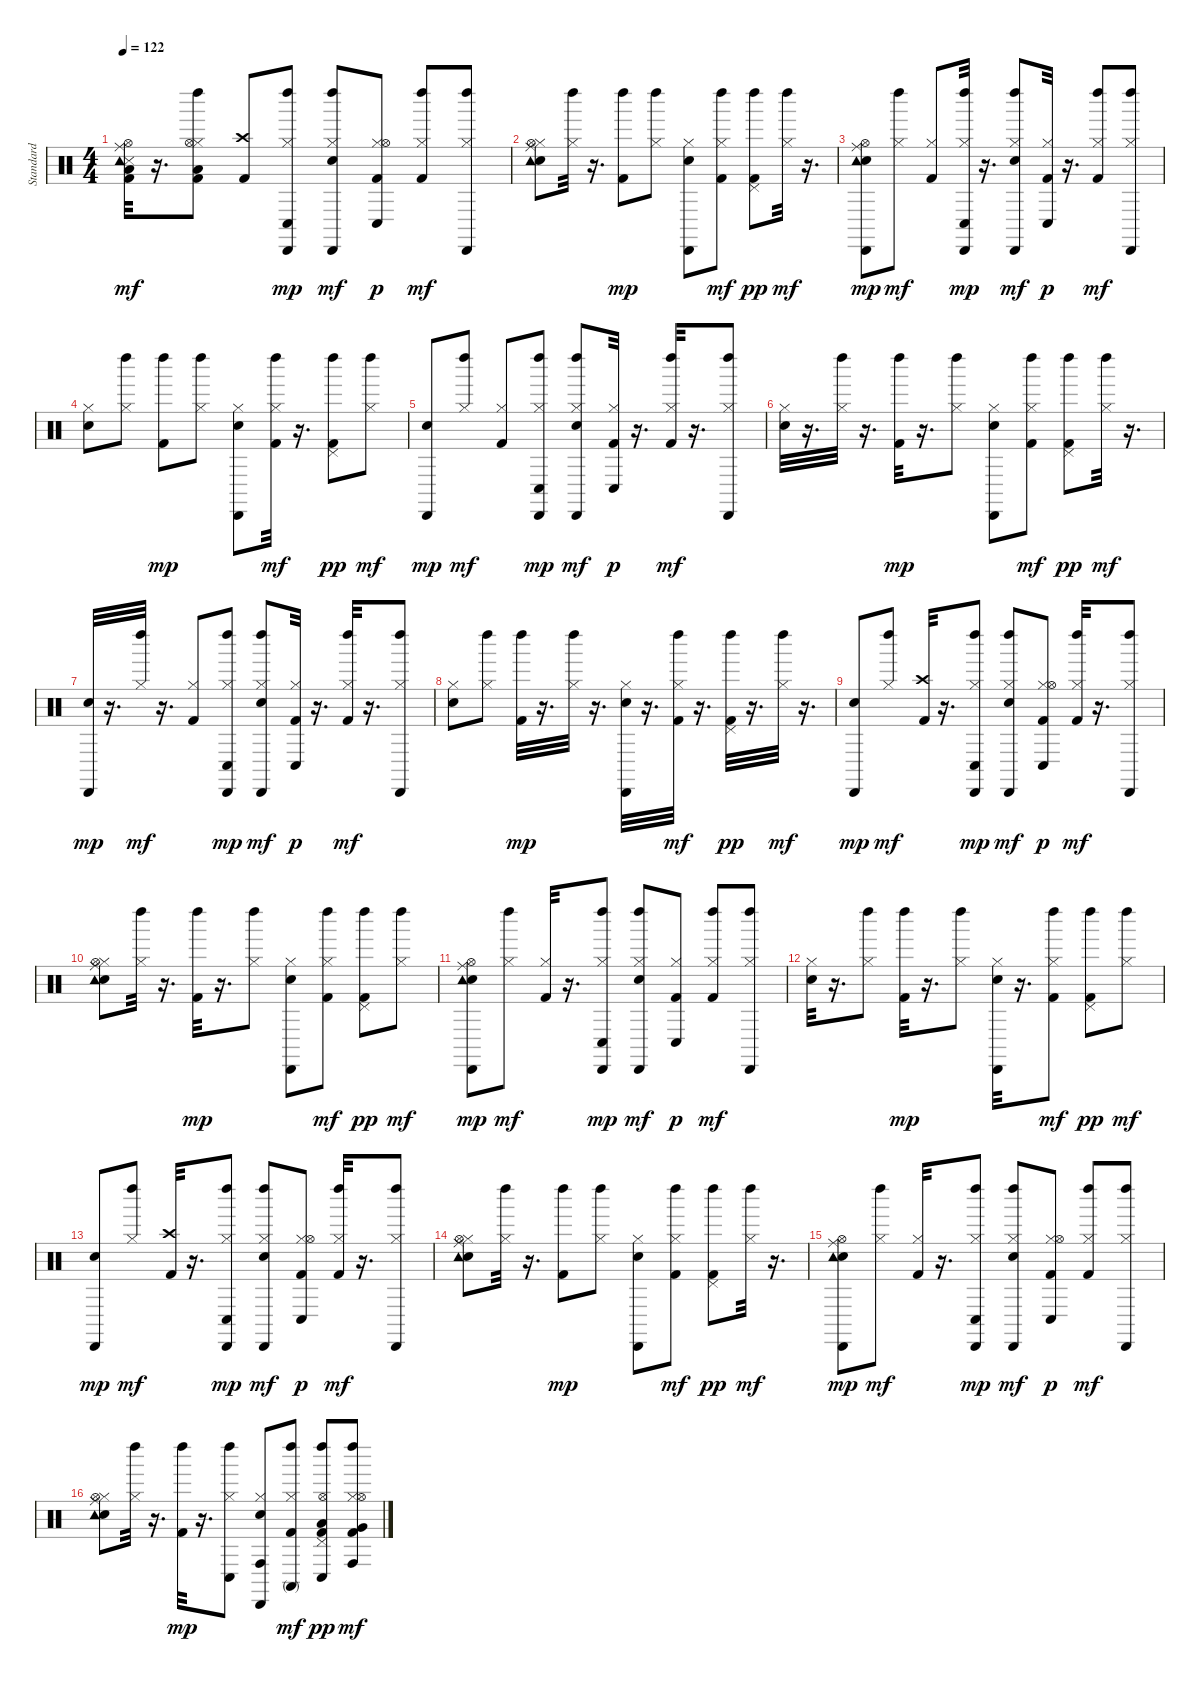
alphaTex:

\track (" Standard" " Standard") {instrument percussion}
\staff {score}
\articulation defaults
\ts (4 4)
\tempo 122
\clef neutral
\ks c
("Kick (hit) 2" "Snare (side stick) 3" "Low Floor Tom (hit)" "Hi-Hat (open)" "Ride (middle)" "Tambourine (hit)").32{dy mf} r.16{d} ("Kick (hit) 2" "Low Floor Tom (hit)" "Hi-Hat (closed)" "Hi-Hat (open)" "Left Maraca (hit)").8 ("Kick (hit) 2" "Crash high (hit)").8 ("Hi-Hat (closed)" "Conga low (hit)" "Cabasa (hit)" "Left Maraca (hit)").8{dy mp} ("Snare (hit) 2" "Hi-Hat (closed)" "Cabasa (hit)" "Left Maraca (hit)").8{dy mf} ("Kick (hit) 2" "Hi-Hat (closed)" "Hi-Hat (open)" "Conga low (hit)").8{dy p} ("Kick (hit) 2" "Hi-Hat (closed)" "Left Maraca (hit)").8{dy mf} ("Hi-Hat (closed)" "Cabasa (hit)" "Left Maraca (hit)").8 |
("Snare (hit) 2" "Hi-Hat (closed)" "Hi-Hat (open)" "Ride (middle)" "Tambourine (hit)").8 ("Hi-Hat (closed)" "Left Maraca (hit)").32 r.16{d} ("Kick (hit) 2" "Left Maraca (hit)").8{dy mp} ("Hi-Hat (closed)" "Left Maraca (hit)").8 ("Snare (hit) 2" "Hi-Hat (closed)" "Cabasa (hit)").8 ("Kick (hit) 2" "Hi-Hat (closed)" "Left Maraca (hit)").8{dy mf} ("Kick (hit) 2" "Pedal Hi-Hat (hit)" "Left Maraca (hit)").8{dy pp} ("Hi-Hat (closed)" "Left Maraca (hit)").32{dy mf} r.16{d} |
("Snare (hit) 2" "Hi-Hat (open)" "Ride (middle)" "Tambourine (hit)" "Cabasa (hit)").8{dy mp} ("Hi-Hat (closed)" "Left Maraca (hit)").8{dy mf} ("Kick (hit) 2" "Hi-Hat (closed)").8 ("Hi-Hat (closed)" "Conga low (hit)" "Cabasa (hit)" "Left Maraca (hit)").32{dy mp} r.16{d} ("Snare (hit) 2" "Hi-Hat (closed)" "Cabasa (hit)" "Left Maraca (hit)").8{dy mf} ("Kick (hit) 2" "Hi-Hat (closed)" "Conga low (hit)").32{dy p} r.16{d} ("Kick (hit) 2" "Hi-Hat (closed)" "Left Maraca (hit)").8{dy mf} ("Hi-Hat (closed)" "Cabasa (hit)" "Left Maraca (hit)").8 |
("Snare (hit) 2" "Hi-Hat (closed)").8 ("Hi-Hat (closed)" "Left Maraca (hit)").8 ("Kick (hit) 2" "Left Maraca (hit)").8{dy mp} ("Hi-Hat (closed)" "Left Maraca (hit)").8 ("Snare (hit) 2" "Hi-Hat (closed)" "Cabasa (hit)").8 ("Kick (hit) 2" "Hi-Hat (closed)" "Left Maraca (hit)").32{dy mf} r.16{d} ("Kick (hit) 2" "Pedal Hi-Hat (hit)" "Left Maraca (hit)").8{dy pp} ("Hi-Hat (closed)" "Left Maraca (hit)").8{dy mf} |
("Snare (hit) 2" "Cabasa (hit)").8{dy mp} ("Hi-Hat (closed)" "Left Maraca (hit)").8{dy mf} ("Kick (hit) 2" "Hi-Hat (closed)").8 ("Hi-Hat (closed)" "Conga low (hit)" "Cabasa (hit)" "Left Maraca (hit)").8{dy mp} ("Snare (hit) 2" "Hi-Hat (closed)" "Cabasa (hit)" "Left Maraca (hit)").8{dy mf} ("Kick (hit) 2" "Hi-Hat (closed)" "Conga low (hit)").32{dy p} r.16{d} ("Kick (hit) 2" "Hi-Hat (closed)" "Left Maraca (hit)").32{dy mf} r.16{d} ("Hi-Hat (closed)" "Cabasa (hit)" "Left Maraca (hit)").8 |
("Snare (hit) 2" "Hi-Hat (closed)").32 r.16{d} ("Hi-Hat (closed)" "Left Maraca (hit)").32 r.16{d} ("Kick (hit) 2" "Left Maraca (hit)").32{dy mp} r.16{d} ("Hi-Hat (closed)" "Left Maraca (hit)").8 ("Snare (hit) 2" "Hi-Hat (closed)" "Cabasa (hit)").8 ("Kick (hit) 2" "Hi-Hat (closed)" "Left Maraca (hit)").8{dy mf} ("Kick (hit) 2" "Pedal Hi-Hat (hit)" "Left Maraca (hit)").8{dy pp} ("Hi-Hat (closed)" "Left Maraca (hit)").32{dy mf} r.16{d} |
("Snare (hit) 2" "Cabasa (hit)").32{dy mp} r.16{d} ("Hi-Hat (closed)" "Left Maraca (hit)").32{dy mf} r.16{d} ("Kick (hit) 2" "Hi-Hat (closed)").8 ("Hi-Hat (closed)" "Conga low (hit)" "Cabasa (hit)" "Left Maraca (hit)").8{dy mp} ("Snare (hit) 2" "Hi-Hat (closed)" "Cabasa (hit)" "Left Maraca (hit)").8{dy mf} ("Kick (hit) 2" "Hi-Hat (closed)" "Conga low (hit)").32{dy p} r.16{d} ("Kick (hit) 2" "Hi-Hat (closed)" "Left Maraca (hit)").32{dy mf} r.16{d} ("Hi-Hat (closed)" "Cabasa (hit)" "Left Maraca (hit)").8 |
("Snare (hit) 2" "Hi-Hat (closed)").8 ("Hi-Hat (closed)" "Left Maraca (hit)").8 ("Kick (hit) 2" "Left Maraca (hit)").32{dy mp} r.16{d} ("Hi-Hat (closed)" "Left Maraca (hit)").32 r.16{d} ("Snare (hit) 2" "Hi-Hat (closed)" "Cabasa (hit)").32 r.16{d} ("Kick (hit) 2" "Hi-Hat (closed)" "Left Maraca (hit)").32{dy mf} r.16{d} ("Kick (hit) 2" "Pedal Hi-Hat (hit)" "Left Maraca (hit)").32{dy pp} r.16{d} ("Hi-Hat (closed)" "Left Maraca (hit)").32{dy mf} r.16{d} |
("Snare (hit) 2" "Cabasa (hit)").8{dy mp} ("Hi-Hat (closed)" "Left Maraca (hit)").8{dy mf} ("Kick (hit) 2" "Crash high (hit)").32 r.16{d} ("Hi-Hat (closed)" "Conga low (hit)" "Cabasa (hit)" "Left Maraca (hit)").8{dy mp} ("Snare (hit) 2" "Hi-Hat (closed)" "Cabasa (hit)" "Left Maraca (hit)").8{dy mf} ("Kick (hit) 2" "Hi-Hat (closed)" "Hi-Hat (open)" "Conga low (hit)").8{dy p} ("Kick (hit) 2" "Hi-Hat (closed)" "Left Maraca (hit)").32{dy mf} r.16{d} ("Hi-Hat (closed)" "Cabasa (hit)" "Left Maraca (hit)").8 |
("Snare (hit) 2" "Hi-Hat (closed)" "Hi-Hat (open)" "Ride (middle)" "Tambourine (hit)").8 ("Hi-Hat (closed)" "Left Maraca (hit)").32 r.16{d} ("Kick (hit) 2" "Left Maraca (hit)").32{dy mp} r.16{d} ("Hi-Hat (closed)" "Left Maraca (hit)").8 ("Snare (hit) 2" "Hi-Hat (closed)" "Cabasa (hit)").8 ("Kick (hit) 2" "Hi-Hat (closed)" "Left Maraca (hit)").8{dy mf} ("Kick (hit) 2" "Pedal Hi-Hat (hit)" "Left Maraca (hit)").8{dy pp} ("Hi-Hat (closed)" "Left Maraca (hit)").8{dy mf} |
("Snare (hit) 2" "Hi-Hat (open)" "Ride (middle)" "Tambourine (hit)" "Cabasa (hit)").8{dy mp} ("Hi-Hat (closed)" "Left Maraca (hit)").8{dy mf} ("Kick (hit) 2" "Hi-Hat (closed)").32 r.16{d} ("Hi-Hat (closed)" "Conga low (hit)" "Cabasa (hit)" "Left Maraca (hit)").8{dy mp} ("Snare (hit) 2" "Hi-Hat (closed)" "Cabasa (hit)" "Left Maraca (hit)").8{dy mf} ("Kick (hit) 2" "Hi-Hat (closed)" "Conga low (hit)").8{dy p} ("Kick (hit) 2" "Hi-Hat (closed)" "Left Maraca (hit)").8{dy mf} ("Hi-Hat (closed)" "Cabasa (hit)" "Left Maraca (hit)").8 |
("Snare (hit) 2" "Hi-Hat (closed)").32 r.16{d} ("Hi-Hat (closed)" "Left Maraca (hit)").8 ("Kick (hit) 2" "Left Maraca (hit)").32{dy mp} r.16{d} ("Hi-Hat (closed)" "Left Maraca (hit)").8 ("Snare (hit) 2" "Hi-Hat (closed)" "Cabasa (hit)").32 r.16{d} ("Kick (hit) 2" "Hi-Hat (closed)" "Left Maraca (hit)").8{dy mf} ("Kick (hit) 2" "Pedal Hi-Hat (hit)" "Left Maraca (hit)").8{dy pp} ("Hi-Hat (closed)" "Left Maraca (hit)").8{dy mf} |
("Snare (hit) 2" "Cabasa (hit)").8{dy mp} ("Hi-Hat (closed)" "Left Maraca (hit)").8{dy mf} ("Kick (hit) 2" "Crash high (hit)").32 r.16{d} ("Hi-Hat (closed)" "Conga low (hit)" "Cabasa (hit)" "Left Maraca (hit)").8{dy mp} ("Snare (hit) 2" "Hi-Hat (closed)" "Cabasa (hit)" "Left Maraca (hit)").8{dy mf} ("Kick (hit) 2" "Hi-Hat (closed)" "Hi-Hat (open)" "Conga low (hit)").8{dy p} ("Kick (hit) 2" "Hi-Hat (closed)" "Left Maraca (hit)").32{dy mf} r.16{d} ("Hi-Hat (closed)" "Cabasa (hit)" "Left Maraca (hit)").8 |
("Snare (hit) 2" "Hi-Hat (closed)" "Hi-Hat (open)" "Ride (middle)" "Tambourine (hit)").8 ("Hi-Hat (closed)" "Left Maraca (hit)").32 r.16{d} ("Kick (hit) 2" "Left Maraca (hit)").8{dy mp} ("Hi-Hat (closed)" "Left Maraca (hit)").8 ("Snare (hit) 2" "Hi-Hat (closed)" "Cabasa (hit)").8 ("Kick (hit) 2" "Hi-Hat (closed)" "Left Maraca (hit)").8{dy mf} ("Kick (hit) 2" "Pedal Hi-Hat (hit)" "Left Maraca (hit)").8{dy pp} ("Hi-Hat (closed)" "Left Maraca (hit)").32{dy mf} r.16{d} |
("Snare (hit) 2" "Hi-Hat (open)" "Ride (middle)" "Tambourine (hit)" "Cabasa (hit)").8{dy mp} ("Hi-Hat (closed)" "Left Maraca (hit)").8{dy mf} ("Kick (hit) 2" "Hi-Hat (closed)").32 r.16{d} ("Hi-Hat (closed)" "Conga low (hit)" "Cabasa (hit)" "Left Maraca (hit)").8{dy mp} ("Snare (hit) 2" "Hi-Hat (closed)" "Cabasa (hit)" "Left Maraca (hit)").8{dy mf} ("Kick (hit) 2" "Hi-Hat (closed)" "Hi-Hat (open)" "Conga low (hit)").8{dy p} ("Kick (hit) 2" "Hi-Hat (closed)" "Left Maraca (hit)").8{dy mf} ("Hi-Hat (closed)" "Cabasa (hit)" "Left Maraca (hit)").8 |
("Snare (hit) 2" "Hi-Hat (closed)" "Hi-Hat (open)" "Ride (middle)" "Tambourine (hit)").8 ("Hi-Hat (closed)" "Left Maraca (hit)").32 r.16{d} ("Kick (hit) 2" "Left Maraca (hit)").32{dy mp} r.16{d} ("Hi-Hat (closed)" "Conga low (hit)" "Left Maraca (hit)").8 ("Snare (hit) 2" "Hi-Hat (closed)" "Conga high (hit)" "Cabasa (hit)").8 ("Kick (hit) 2" "Hi-Hat (closed)" "Conga high (mute)" "Left Maraca (hit)").8{dy mf} ("Kick (hit) 2" "Low Floor Tom (hit)" "Pedal Hi-Hat (hit)" "Hi-Hat (open)" "Conga low (hit)" "Left Maraca (hit)").8{dy pp} ("Kick (hit) 2" "Hi-Hat (closed)" "Very Low Tom (hit)" "Hi-Hat (open)" "Conga high (hit)" "Left Maraca (hit)").8{dy mf}
